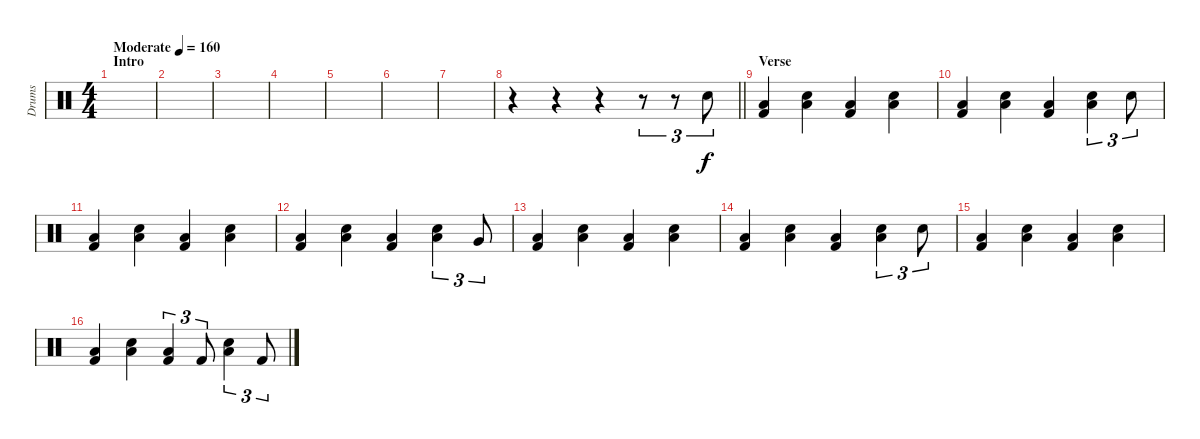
\track ("Drums" "Drums") {instrument percussion}
\staff {score}
\articulation defaults
\ts (4 4)
\section ("" "Intro")
\tempo (160 "Moderate")
\clef neutral
\ks c
|
|
|
|
|
|
|
\barLineRight lightlight
r.4 r.4 r.4 r.8{tu (3 2)} r.8{tu (3 2)} "Electric Snare (hit)".8{tu (3 2)} |
\section ("" "Verse")
("Low Floor Tom (hit)" "Kick (hit) 2").4 ("Low Floor Tom (hit)" "Electric Snare (hit)").4 ("Low Floor Tom (hit)" "Kick (hit) 2").4 ("Low Floor Tom (hit)" "Electric Snare (hit)").4 |
("Low Floor Tom (hit)" "Kick (hit) 2").4 ("Low Floor Tom (hit)" "Electric Snare (hit)").4 ("Low Floor Tom (hit)" "Kick (hit) 2").4 ("Low Floor Tom (hit)" "Electric Snare (hit)").4{tu (3 2)} "Electric Snare (hit)".8{tu (3 2)} |
("Low Floor Tom (hit)" "Kick (hit) 2").4 ("Low Floor Tom (hit)" "Electric Snare (hit)").4 ("Low Floor Tom (hit)" "Kick (hit) 2").4 ("Low Floor Tom (hit)" "Electric Snare (hit)").4 |
("Low Floor Tom (hit)" "Kick (hit) 2").4 ("Low Floor Tom (hit)" "Electric Snare (hit)").4 ("Low Floor Tom (hit)" "Kick (hit) 2").4 ("Low Floor Tom (hit)" "Electric Snare (hit)").4{tu (3 2)} "Very Low Tom (hit)".8{tu (3 2)} |
("Low Floor Tom (hit)" "Kick (hit) 2").4 ("Low Floor Tom (hit)" "Electric Snare (hit)").4 ("Low Floor Tom (hit)" "Kick (hit) 2").4 ("Low Floor Tom (hit)" "Electric Snare (hit)").4 |
("Low Floor Tom (hit)" "Kick (hit) 2").4 ("Low Floor Tom (hit)" "Electric Snare (hit)").4 ("Low Floor Tom (hit)" "Kick (hit) 2").4 ("Low Floor Tom (hit)" "Electric Snare (hit)").4{tu (3 2)} "Electric Snare (hit)".8{tu (3 2)} |
("Low Floor Tom (hit)" "Kick (hit) 2").4 ("Low Floor Tom (hit)" "Electric Snare (hit)").4 ("Low Floor Tom (hit)" "Kick (hit) 2").4 ("Low Floor Tom (hit)" "Electric Snare (hit)").4 |
("Low Floor Tom (hit)" "Kick (hit) 2").4 ("Low Floor Tom (hit)" "Electric Snare (hit)").4 ("Low Floor Tom (hit)" "Kick (hit) 2").4{tu (3 2)} "Kick (hit) 2".8{tu (3 2)} ("Low Floor Tom (hit)" "Electric Snare (hit)").4{tu (3 2)} "Kick (hit) 2".8{tu (3 2)}
